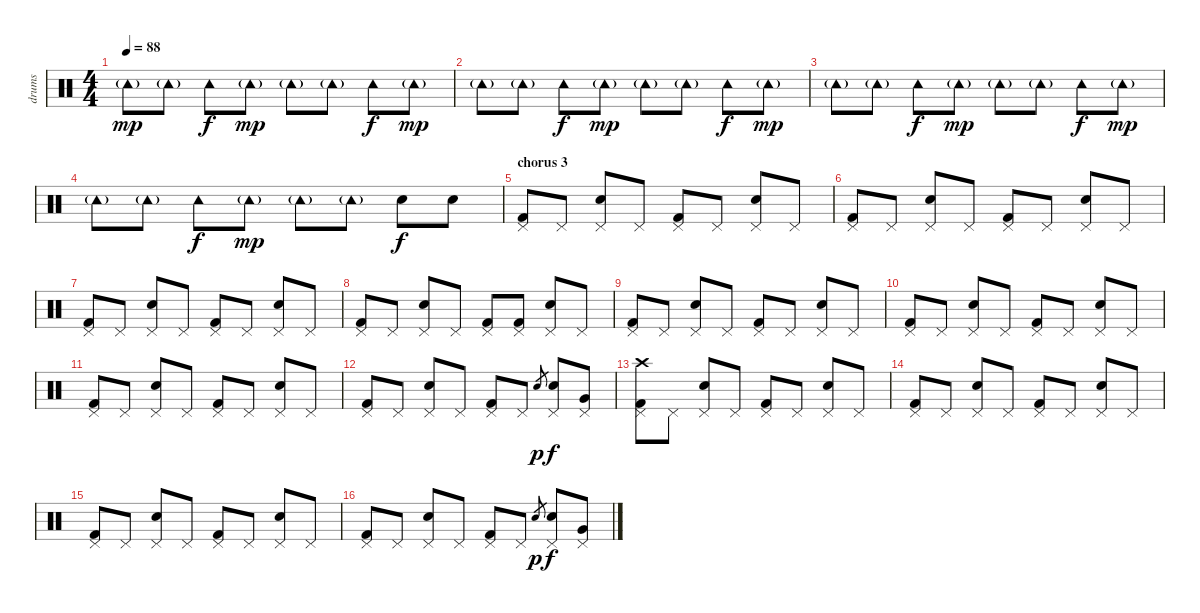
\track ("drums" "drums") {instrument percussion}
\staff {score}
\articulation defaults
\ts (4 4)
\tempo 88
\clef neutral
\ks c "Tambourine (hit)"{g}.8{dy mp} "Tambourine (hit)"{g}.8 "Tambourine (hit)".8{dy f} "Tambourine (hit)"{g}.8{dy mp} "Tambourine (hit)"{g}.8 "Tambourine (hit)"{g}.8 "Tambourine (hit)".8{dy f} "Tambourine (hit)"{g}.8{dy mp}
|
"Tambourine (hit)"{g}.8 "Tambourine (hit)"{g}.8 "Tambourine (hit)".8{dy f} "Tambourine (hit)"{g}.8{dy mp} "Tambourine (hit)"{g}.8 "Tambourine (hit)"{g}.8 "Tambourine (hit)".8{dy f} "Tambourine (hit)"{g}.8{dy mp} |
"Tambourine (hit)"{g}.8 "Tambourine (hit)"{g}.8 "Tambourine (hit)".8{dy f} "Tambourine (hit)"{g}.8{dy mp} "Tambourine (hit)"{g}.8 "Tambourine (hit)"{g}.8 "Tambourine (hit)".8{dy f} "Tambourine (hit)"{g}.8{dy mp} |
"Tambourine (hit)"{g}.8 "Tambourine (hit)"{g}.8 "Tambourine (hit)".8{dy f} "Tambourine (hit)"{g}.8{dy mp} "Tambourine (hit)"{g}.8 "Tambourine (hit)"{g}.8 "Electric Snare (hit)".8{dy f volume 16} "Electric Snare (hit)".8 |
\section ("" "chorus 3")
("Kick (hit) 2" "Pedal Hi-Hat (hit)").8 "Pedal Hi-Hat (hit)".8 ("Electric Snare (hit)" "Pedal Hi-Hat (hit)").8 "Pedal Hi-Hat (hit)".8 ("Kick (hit) 2" "Pedal Hi-Hat (hit)").8 "Pedal Hi-Hat (hit)".8 ("Electric Snare (hit)" "Pedal Hi-Hat (hit)").8 "Pedal Hi-Hat (hit)".8 |
("Kick (hit) 2" "Pedal Hi-Hat (hit)").8 "Pedal Hi-Hat (hit)".8 ("Electric Snare (hit)" "Pedal Hi-Hat (hit)").8 "Pedal Hi-Hat (hit)".8 ("Kick (hit) 2" "Pedal Hi-Hat (hit)").8 "Pedal Hi-Hat (hit)".8 ("Electric Snare (hit)" "Pedal Hi-Hat (hit)").8 "Pedal Hi-Hat (hit)".8 |
("Kick (hit) 2" "Pedal Hi-Hat (hit)").8 "Pedal Hi-Hat (hit)".8 ("Electric Snare (hit)" "Pedal Hi-Hat (hit)").8 "Pedal Hi-Hat (hit)".8 ("Kick (hit) 2" "Pedal Hi-Hat (hit)").8 "Pedal Hi-Hat (hit)".8 ("Electric Snare (hit)" "Pedal Hi-Hat (hit)").8 "Pedal Hi-Hat (hit)".8 |
("Kick (hit) 2" "Pedal Hi-Hat (hit)").8 "Pedal Hi-Hat (hit)".8 ("Electric Snare (hit)" "Pedal Hi-Hat (hit)").8 "Pedal Hi-Hat (hit)".8 ("Kick (hit) 2" "Pedal Hi-Hat (hit)").8 ("Kick (hit) 2" "Pedal Hi-Hat (hit)").8 ("Electric Snare (hit)" "Pedal Hi-Hat (hit)").8 "Pedal Hi-Hat (hit)".8 |
("Kick (hit) 2" "Pedal Hi-Hat (hit)").8 "Pedal Hi-Hat (hit)".8 ("Electric Snare (hit)" "Pedal Hi-Hat (hit)").8 "Pedal Hi-Hat (hit)".8 ("Kick (hit) 2" "Pedal Hi-Hat (hit)").8 "Pedal Hi-Hat (hit)".8 ("Electric Snare (hit)" "Pedal Hi-Hat (hit)").8 "Pedal Hi-Hat (hit)".8 |
("Kick (hit) 2" "Pedal Hi-Hat (hit)").8 "Pedal Hi-Hat (hit)".8 ("Electric Snare (hit)" "Pedal Hi-Hat (hit)").8 "Pedal Hi-Hat (hit)".8 ("Kick (hit) 2" "Pedal Hi-Hat (hit)").8 "Pedal Hi-Hat (hit)".8 ("Electric Snare (hit)" "Pedal Hi-Hat (hit)").8 "Pedal Hi-Hat (hit)".8 |
("Kick (hit) 2" "Pedal Hi-Hat (hit)").8 "Pedal Hi-Hat (hit)".8 ("Electric Snare (hit)" "Pedal Hi-Hat (hit)").8 "Pedal Hi-Hat (hit)".8 ("Kick (hit) 2" "Pedal Hi-Hat (hit)").8 "Pedal Hi-Hat (hit)".8 ("Electric Snare (hit)" "Pedal Hi-Hat (hit)").8 "Pedal Hi-Hat (hit)".8 |
("Kick (hit) 2" "Pedal Hi-Hat (hit)").8 "Pedal Hi-Hat (hit)".8 ("Electric Snare (hit)" "Pedal Hi-Hat (hit)").8 "Pedal Hi-Hat (hit)".8 ("Kick (hit) 2" "Pedal Hi-Hat (hit)").8 "Pedal Hi-Hat (hit)".8 "Electric Snare (hit)".8{gr dy p} ("Electric Snare (hit)" "Pedal Hi-Hat (hit)").8{dy f} ("Very Low Tom (hit)" "Pedal Hi-Hat (hit)").8 |
("Kick (hit) 2" "Pedal Hi-Hat (hit)" "Crash high (hit)").8 "Pedal Hi-Hat (hit)".8 ("Electric Snare (hit)" "Pedal Hi-Hat (hit)").8 "Pedal Hi-Hat (hit)".8 ("Kick (hit) 2" "Pedal Hi-Hat (hit)").8 "Pedal Hi-Hat (hit)".8 ("Electric Snare (hit)" "Pedal Hi-Hat (hit)").8 "Pedal Hi-Hat (hit)".8 |
("Kick (hit) 2" "Pedal Hi-Hat (hit)").8 "Pedal Hi-Hat (hit)".8 ("Electric Snare (hit)" "Pedal Hi-Hat (hit)").8 "Pedal Hi-Hat (hit)".8 ("Kick (hit) 2" "Pedal Hi-Hat (hit)").8 "Pedal Hi-Hat (hit)".8 ("Electric Snare (hit)" "Pedal Hi-Hat (hit)").8 "Pedal Hi-Hat (hit)".8 |
("Kick (hit) 2" "Pedal Hi-Hat (hit)").8 "Pedal Hi-Hat (hit)".8 ("Electric Snare (hit)" "Pedal Hi-Hat (hit)").8 "Pedal Hi-Hat (hit)".8 ("Kick (hit) 2" "Pedal Hi-Hat (hit)").8 "Pedal Hi-Hat (hit)".8 ("Electric Snare (hit)" "Pedal Hi-Hat (hit)").8 "Pedal Hi-Hat (hit)".8 |
("Kick (hit) 2" "Pedal Hi-Hat (hit)").8 "Pedal Hi-Hat (hit)".8 ("Electric Snare (hit)" "Pedal Hi-Hat (hit)").8 "Pedal Hi-Hat (hit)".8 ("Kick (hit) 2" "Pedal Hi-Hat (hit)").8 "Pedal Hi-Hat (hit)".8 "Electric Snare (hit)".8{gr dy p} ("Electric Snare (hit)" "Pedal Hi-Hat (hit)").8{dy f} ("Very Low Tom (hit)" "Pedal Hi-Hat (hit)").8
